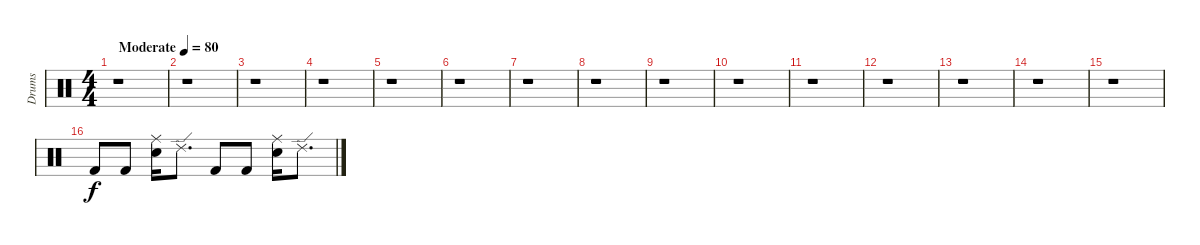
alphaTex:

\track ("Drums" "Drums") {instrument percussion}
\staff {score}
\articulation defaults
\ts (4 4)
\tempo (80 "Moderate")
\clef neutral
\ks c
r.1{dy f} |
r.1 |
r.1 |
r.1 |
r.1 |
r.1 |
r.1 |
r.1 |
r.1 |
r.1 |
r.1 |
r.1 |
r.1 |
r.1 |
r.1 |
"Kick (hit) 2".8 "Kick (hit) 2".8 ("Ride (middle)" "Snare (hit) 2").16 "Ride (edge) 2".8{d} "Kick (hit) 2".8 "Kick (hit) 2".8 ("Ride (middle)" "Snare (hit) 2").16 "Ride (edge) 2".8{d}
